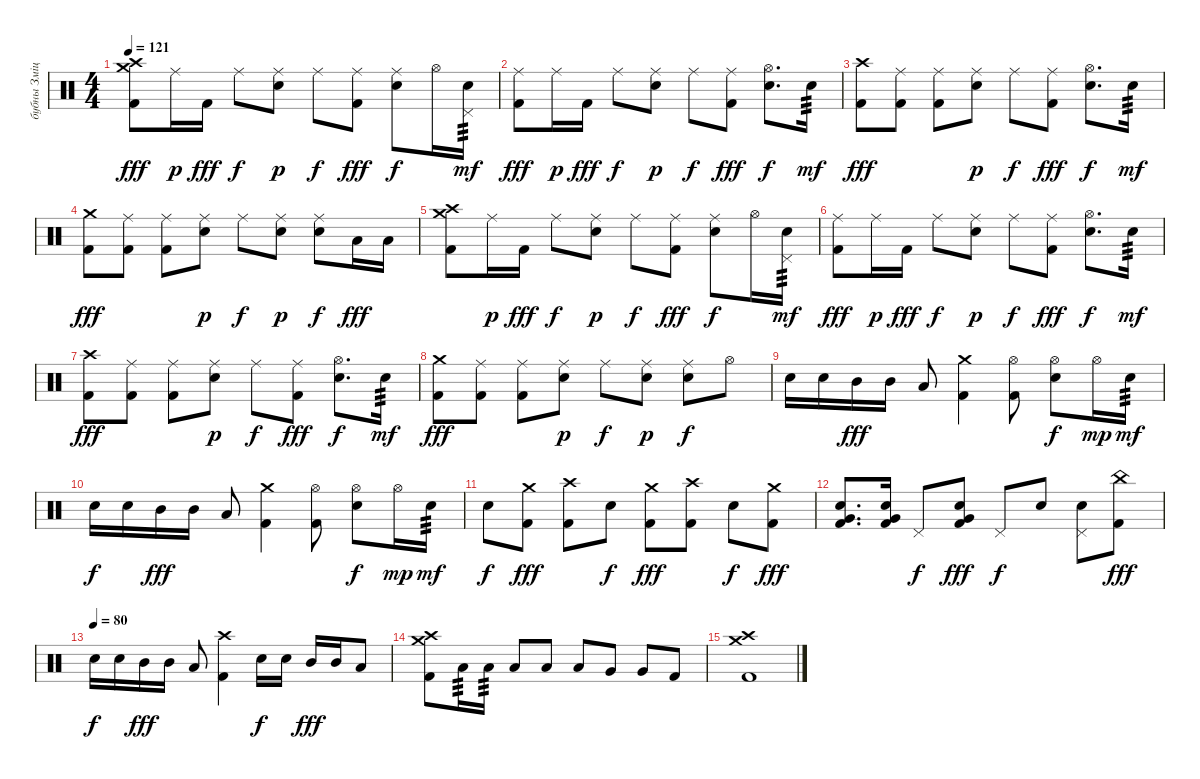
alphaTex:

\track ("бубны Змiцер " "бубны Змiц") {instrument percussion}
\staff {score}
\articulation defaults
\ts (4 4)
\tempo 121
\clef neutral
\ks c
("Crash high (hit)" "Crash medium (hit)" "Kick (hit) 2").8{dy fff} "Ride (middle)".16{dy p} "Kick (hit) 2".16{dy fff} "Ride (middle)".8{dy f} ("Ride (middle)" "Electric Snare (hit)").8{dy p} "Ride (middle)".8{dy f} ("Ride (middle)" "Kick (hit) 2").8{dy fff} ("Ride (middle)" "Electric Snare (hit)").8{dy f} "Hi-Hat (open)".16 ("Pedal Hi-Hat (hit)" "Electric Snare (hit)").16{tp 3 dy mf} |
("Ride (middle)" "Kick (hit) 2").8{dy fff} "Ride (middle)".16{dy p} "Kick (hit) 2".16{dy fff} "Ride (middle)".8{dy f} ("Ride (middle)" "Electric Snare (hit)").8{dy p} "Ride (middle)".8{dy f} ("Ride (middle)" "Kick (hit) 2").8{dy fff} ("Hi-Hat (open)" "Electric Snare (hit)").8{d dy f} "Electric Snare (hit)".16{tp 3 dy mf} |
("Crash high (hit)" "Kick (hit) 2").8{dy fff} ("Ride (middle)" "Kick (hit) 2").8 ("Ride (middle)" "Kick (hit) 2").8 ("Ride (middle)" "Electric Snare (hit)").8{dy p} "Ride (middle)".8{dy f} ("Ride (middle)" "Kick (hit) 2").8{dy fff} ("Hi-Hat (open)" "Electric Snare (hit)").8{d dy f} "Electric Snare (hit)".16{tp 3 dy mf} |
("Crash medium (hit)" "Kick (hit) 2").8{dy fff} ("Ride (middle)" "Kick (hit) 2").8 ("Ride (middle)" "Kick (hit) 2").8 ("Ride (middle)" "Electric Snare (hit)").8{dy p} "Ride (middle)".8{dy f} ("Ride (middle)" "Electric Snare (hit)").8{dy p} ("Ride (middle)" "Electric Snare (hit)").8{dy f} "Low Tom (hit)".16{dy fff} "Low Tom (hit)".16 |
("Crash high (hit)" "Crash medium (hit)" "Kick (hit) 2").8 "Ride (middle)".16{dy p} "Kick (hit) 2".16{dy fff} "Ride (middle)".8{dy f} ("Ride (middle)" "Electric Snare (hit)").8{dy p} "Ride (middle)".8{dy f} ("Ride (middle)" "Kick (hit) 2").8{dy fff} ("Ride (middle)" "Electric Snare (hit)").8{dy f} "Hi-Hat (open)".16 ("Pedal Hi-Hat (hit)" "Electric Snare (hit)").16{tp 3 dy mf} |
("Ride (middle)" "Kick (hit) 2").8{dy fff} "Ride (middle)".16{dy p} "Kick (hit) 2".16{dy fff} "Ride (middle)".8{dy f} ("Ride (middle)" "Electric Snare (hit)").8{dy p} "Ride (middle)".8{dy f} ("Ride (middle)" "Kick (hit) 2").8{dy fff} ("Hi-Hat (open)" "Electric Snare (hit)").8{d dy f} "Electric Snare (hit)".16{tp 3 dy mf} |
("Crash high (hit)" "Kick (hit) 2").8{dy fff} ("Ride (middle)" "Kick (hit) 2").8 ("Ride (middle)" "Kick (hit) 2").8 ("Ride (middle)" "Electric Snare (hit)").8{dy p} "Ride (middle)".8{dy f} ("Ride (middle)" "Kick (hit) 2").8{dy fff} ("Hi-Hat (open)" "Electric Snare (hit)").8{d dy f} "Electric Snare (hit)".16{tp 3 dy mf} |
("Crash medium (hit)" "Kick (hit) 2").8{dy fff} ("Ride (middle)" "Kick (hit) 2").8 ("Ride (middle)" "Kick (hit) 2").8 ("Ride (middle)" "Electric Snare (hit)").8{dy p} "Ride (middle)".8{dy f} ("Ride (middle)" "Electric Snare (hit)").8{dy p} ("Ride (middle)" "Electric Snare (hit)").8{dy f} "Hi-Hat (open)".8 |
"Electric Snare (hit)".16 "Electric Snare (hit)".16 "Mid Tom (hit)".16{dy fff} "Mid Tom (hit)".16 "Low Tom (hit)".8 ("Crash medium (hit)" "Kick (hit) 2").4 ("Hi-Hat (open)" "Kick (hit) 2").8 ("Hi-Hat (open)" "Electric Snare (hit)").8{dy f} "Hi-Hat (open)".16{dy mp} "Electric Snare (hit)".16{tp 3 dy mf} |
"Electric Snare (hit)".16{dy f} "Electric Snare (hit)".16 "Mid Tom (hit)".16{dy fff} "Mid Tom (hit)".16 "Low Tom (hit)".8 ("Crash medium (hit)" "Kick (hit) 2").4 ("Hi-Hat (open)" "Kick (hit) 2").8 ("Hi-Hat (open)" "Electric Snare (hit)").8{dy f} "Hi-Hat (open)".16{dy mp} "Electric Snare (hit)".16{tp 3 dy mf} |
"Electric Snare (hit)".8{dy f} ("Crash medium (hit)" "Kick (hit) 2").8{dy fff} ("Crash high (hit)" "Kick (hit) 2").8 "Electric Snare (hit)".8{dy f} ("Crash medium (hit)" "Kick (hit) 2").8{dy fff} ("Crash high (hit)" "Kick (hit) 2").8 "Electric Snare (hit)".8{dy f} ("Crash medium (hit)" "Kick (hit) 2").8{dy fff} |
("Very Low Tom (hit)" "Electric Snare (hit)" "Kick (hit) 2").8{d} ("Very Low Tom (hit)" "Electric Snare (hit)" "Kick (hit) 2").16 "Pedal Hi-Hat (hit)".8{dy f} ("Very Low Tom (hit)" "Electric Snare (hit)" "Kick (hit) 2").8{dy fff} "Pedal Hi-Hat (hit)".8{dy f} "Electric Snare (hit)".8 ("Electric Snare (hit)" "Pedal Hi-Hat (hit)").8 ("China (hit)" "Kick (hit) 2").8{dy fff} |
\tempo (80)
"Electric Snare (hit)".16{dy f} "Electric Snare (hit)".16 "Mid Tom (hit)".16{dy fff} "Mid Tom (hit)".16 "Low Tom (hit)".8 ("Crash high (hit)" "Kick (hit) 2").4 "Electric Snare (hit)".16{dy f} "Electric Snare (hit)".16 "Mid Tom (hit)".16{dy fff} "Mid Tom (hit)".16 "Low Tom (hit)".8 |
("Crash high (hit)" "Crash medium (hit)" "Kick (hit) 2").8 "Low Tom (hit)".16{tp 3} "Low Tom (hit)".16{tp 3} "Low Tom (hit)".8 "Low Tom (hit)".8 "Low Tom (hit)".8 "Very Low Tom (hit)".8 "Very Low Tom (hit)".8 "Kick (hit) 2".8 |
("Crash high (hit)" "Crash medium (hit)" "Kick (hit) 2").1
